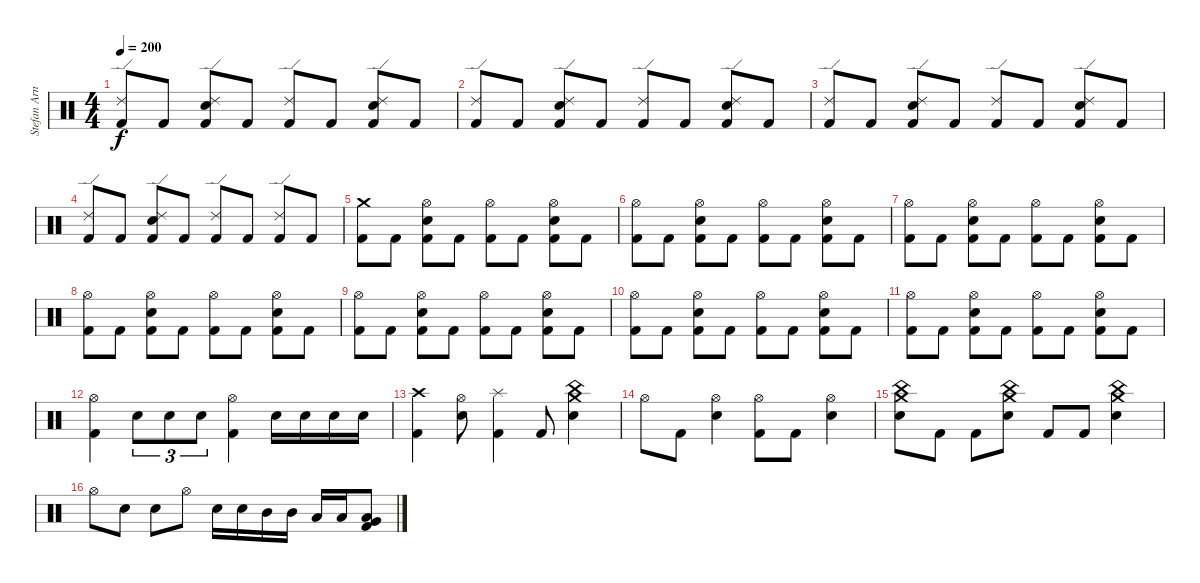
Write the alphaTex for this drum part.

\track ("Stefan Arnold" "Stefan Arn") {instrument percussion}
\staff {score}
\articulation defaults
\ts (4 4)
\tempo 200
\clef neutral
\ks c
("Ride (edge) 2" "Kick (hit) 2").8{dy f} "Kick (hit) 2".8 ("Ride (edge) 2" "Electric Snare (hit)" "Kick (hit) 2").8 "Kick (hit) 2".8 ("Ride (edge) 2" "Kick (hit) 2").8 "Kick (hit) 2".8 ("Ride (edge) 2" "Electric Snare (hit)" "Kick (hit) 2").8 "Kick (hit) 2".8 |
("Ride (edge) 2" "Kick (hit) 2").8 "Kick (hit) 2".8 ("Ride (edge) 2" "Electric Snare (hit)" "Kick (hit) 2").8 "Kick (hit) 2".8 ("Ride (edge) 2" "Kick (hit) 2").8 "Kick (hit) 2".8 ("Ride (edge) 2" "Electric Snare (hit)" "Kick (hit) 2").8 "Kick (hit) 2".8 |
("Ride (edge) 2" "Kick (hit) 2").8 "Kick (hit) 2".8 ("Ride (edge) 2" "Electric Snare (hit)" "Kick (hit) 2").8 "Kick (hit) 2".8 ("Ride (edge) 2" "Kick (hit) 2").8 "Kick (hit) 2".8 ("Ride (edge) 2" "Electric Snare (hit)" "Kick (hit) 2").8 "Kick (hit) 2".8 |
("Ride (edge) 2" "Kick (hit) 2").8 "Kick (hit) 2".8 ("Ride (edge) 2" "Electric Snare (hit)" "Kick (hit) 2").8 "Kick (hit) 2".8 ("Ride (edge) 2" "Kick (hit) 2").8 "Kick (hit) 2".8 ("Ride (edge) 2" "Kick (hit) 2").8 "Kick (hit) 2".8 |
("Crash medium (hit)" "Kick (hit) 2").8 "Kick (hit) 2".8 ("Hi-Hat (open)" "Electric Snare (hit)" "Kick (hit) 2").8 "Kick (hit) 2".8 ("Hi-Hat (open)" "Kick (hit) 2").8 "Kick (hit) 2".8 ("Hi-Hat (open)" "Electric Snare (hit)" "Kick (hit) 2").8 "Kick (hit) 2".8 |
("Hi-Hat (open)" "Kick (hit) 2").8 "Kick (hit) 2".8 ("Hi-Hat (open)" "Electric Snare (hit)" "Kick (hit) 2").8 "Kick (hit) 2".8 ("Hi-Hat (open)" "Kick (hit) 2").8 "Kick (hit) 2".8 ("Hi-Hat (open)" "Electric Snare (hit)" "Kick (hit) 2").8 "Kick (hit) 2".8 |
("Hi-Hat (open)" "Kick (hit) 2").8 "Kick (hit) 2".8 ("Hi-Hat (open)" "Electric Snare (hit)" "Kick (hit) 2").8 "Kick (hit) 2".8 ("Hi-Hat (open)" "Kick (hit) 2").8 "Kick (hit) 2".8 ("Hi-Hat (open)" "Electric Snare (hit)" "Kick (hit) 2").8 "Kick (hit) 2".8 |
("Hi-Hat (open)" "Kick (hit) 2").8 "Kick (hit) 2".8 ("Hi-Hat (open)" "Electric Snare (hit)" "Kick (hit) 2").8 "Kick (hit) 2".8 ("Hi-Hat (open)" "Kick (hit) 2").8 "Kick (hit) 2".8 ("Hi-Hat (open)" "Electric Snare (hit)" "Kick (hit) 2").8 "Kick (hit) 2".8 |
("Hi-Hat (open)" "Kick (hit) 2").8 "Kick (hit) 2".8 ("Hi-Hat (open)" "Electric Snare (hit)" "Kick (hit) 2").8 "Kick (hit) 2".8 ("Hi-Hat (open)" "Kick (hit) 2").8 "Kick (hit) 2".8 ("Hi-Hat (open)" "Electric Snare (hit)" "Kick (hit) 2").8 "Kick (hit) 2".8 |
("Hi-Hat (open)" "Kick (hit) 2").8 "Kick (hit) 2".8 ("Hi-Hat (open)" "Electric Snare (hit)" "Kick (hit) 2").8 "Kick (hit) 2".8 ("Hi-Hat (open)" "Kick (hit) 2").8 "Kick (hit) 2".8 ("Hi-Hat (open)" "Electric Snare (hit)" "Kick (hit) 2").8 "Kick (hit) 2".8 |
("Hi-Hat (open)" "Kick (hit) 2").8 "Kick (hit) 2".8 ("Hi-Hat (open)" "Electric Snare (hit)" "Kick (hit) 2").8 "Kick (hit) 2".8 ("Hi-Hat (open)" "Kick (hit) 2").8 "Kick (hit) 2".8 ("Hi-Hat (open)" "Electric Snare (hit)" "Kick (hit) 2").8 "Kick (hit) 2".8 |
("Hi-Hat (open)" "Kick (hit) 2").4 "Electric Snare (hit)".8{tu (3 2)} "Electric Snare (hit)".8{tu (3 2)} "Electric Snare (hit)".8{tu (3 2)} ("Hi-Hat (open)" "Kick (hit) 2").4 "Electric Snare (hit)".16 "Electric Snare (hit)".16 "Electric Snare (hit)".16 "Electric Snare (hit)".16 |
("Crash high (hit)" "Kick (hit) 2").4 ("Hi-Hat (open)" "Electric Snare (hit)").8 ("Splash (hit)" "Kick (hit) 2").4 "Kick (hit) 2".8 ("Crash medium (hit)" "China (hit)" "Electric Snare (hit)").4 |
"Hi-Hat (open)".8 "Kick (hit) 2".8 ("Hi-Hat (open)" "Electric Snare (hit)").4 ("Hi-Hat (open)" "Kick (hit) 2").8 "Kick (hit) 2".8 ("Hi-Hat (open)" "Electric Snare (hit)").4 |
("Crash medium (hit)" "China (hit)" "Electric Snare (hit)").8 "Kick (hit) 2".8 "Kick (hit) 2".8 ("Crash medium (hit)" "China (hit)" "Electric Snare (hit)").8 "Kick (hit) 2".8 "Kick (hit) 2".8 ("Crash medium (hit)" "China (hit)" "Electric Snare (hit)").4 |
"Hi-Hat (open)".8 "Electric Snare (hit)".8 "Electric Snare (hit)".8 "Hi-Hat (open)".8 "Electric Snare (hit)".16 "Electric Snare (hit)".16 "Mid Tom (hit)".16 "Mid Tom (hit)".16 "Low Tom (hit)".16 "Low Tom (hit)".16 ("Low Floor Tom (hit)" "Very Low Tom (hit)" "Kick (hit) 2").8
